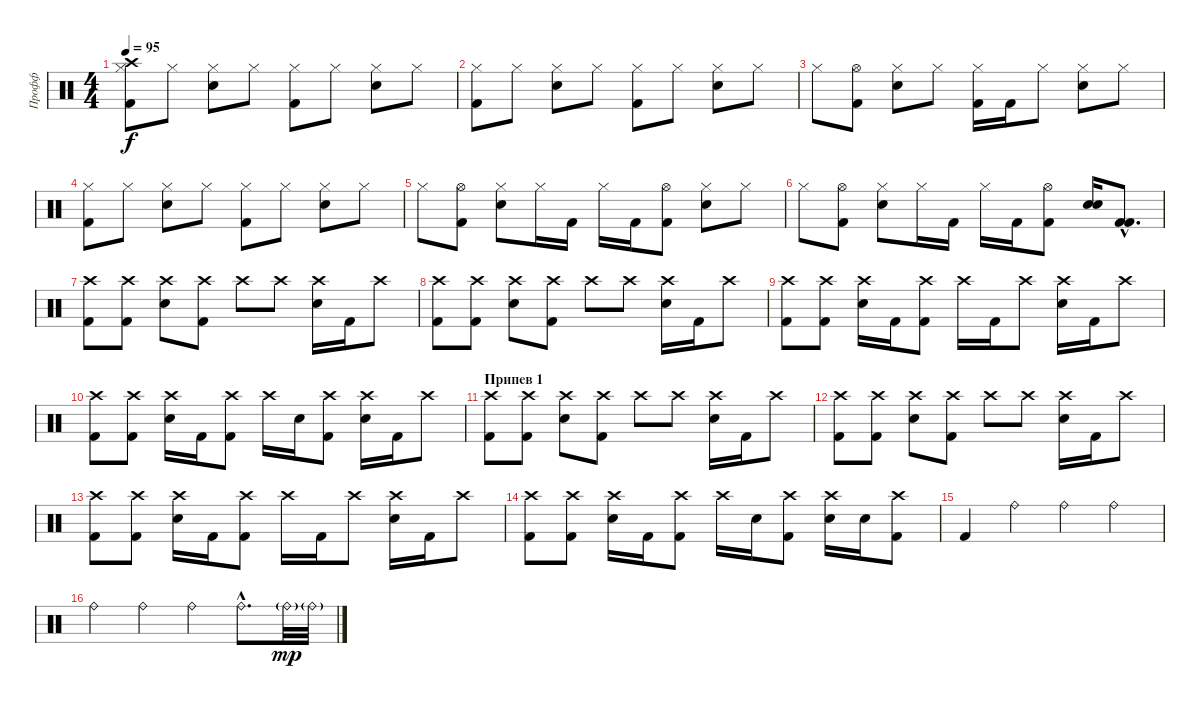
\track ("Профф" "Профф") {instrument percussion}
\staff {score}
\articulation defaults
\ts (4 4)
\tempo 95
\clef neutral
\ks c
("Hi-Hat (closed)" "Crash high (hit)" "Kick (hit) 2").8{dy f} "Hi-Hat (closed)".8 ("Hi-Hat (closed)" "Snare (hit) 2").8 "Hi-Hat (closed)".8 ("Hi-Hat (closed)" "Kick (hit) 2").8 "Hi-Hat (closed)".8 ("Hi-Hat (closed)" "Snare (hit) 2").8 "Hi-Hat (closed)".8 |
("Hi-Hat (closed)" "Kick (hit) 2").8 "Hi-Hat (closed)".8 ("Hi-Hat (closed)" "Snare (hit) 2").8 "Hi-Hat (closed)".8 ("Hi-Hat (closed)" "Kick (hit) 2").8 "Hi-Hat (closed)".8 ("Hi-Hat (closed)" "Snare (hit) 2").8 "Hi-Hat (closed)".8 |
"Hi-Hat (closed)".8 ("Hi-Hat (open)" "Kick (hit) 2").8 ("Hi-Hat (closed)" "Snare (hit) 2").8 "Hi-Hat (closed)".8 ("Hi-Hat (closed)" "Kick (hit) 2").16 "Kick (hit) 2".16 "Hi-Hat (closed)".8 ("Hi-Hat (closed)" "Snare (hit) 2").8 "Hi-Hat (closed)".8 |
("Hi-Hat (closed)" "Kick (hit) 2").8 "Hi-Hat (closed)".8 ("Hi-Hat (closed)" "Snare (hit) 2").8 "Hi-Hat (closed)".8 ("Hi-Hat (closed)" "Kick (hit) 2").8 "Hi-Hat (closed)".8 ("Hi-Hat (closed)" "Snare (hit) 2").8 "Hi-Hat (closed)".8 |
"Hi-Hat (closed)".8 ("Hi-Hat (open)" "Kick (hit) 2").8 ("Hi-Hat (closed)" "Snare (hit) 2").8 "Hi-Hat (closed)".16 "Kick (hit) 2".16 "Hi-Hat (closed)".16 "Kick (hit) 2".16 ("Hi-Hat (open)" "Kick (hit) 2").8 ("Hi-Hat (closed)" "Snare (hit) 2").8 "Hi-Hat (closed)".8 |
"Hi-Hat (closed)".8 ("Hi-Hat (open)" "Kick (hit) 2").8 ("Hi-Hat (closed)" "Snare (hit) 2").8 "Hi-Hat (closed)".16 "Kick (hit) 2".16 "Hi-Hat (closed)".16 "Kick (hit) 2".16 ("Hi-Hat (open)" "Kick (hit) 2").8 ("Snare (hit) 2" "Snare (hit) 2").16{bu 60} ("Kick (hit) 2"{hac} "Kick (hit) 2"{hac}).8{d} |
("Crash high (hit)" "Kick (hit) 2").8 ("Crash high (hit)" "Kick (hit) 2").8 ("Crash high (hit)" "Snare (hit) 2").8 ("Crash high (hit)" "Kick (hit) 2").8 "Crash high (hit)".8 "Crash high (hit)".8 ("Crash high (hit)" "Snare (hit) 2").16 "Kick (hit) 2".16 "Crash high (hit)".8 |
("Crash high (hit)" "Kick (hit) 2").8 ("Crash high (hit)" "Kick (hit) 2").8 ("Crash high (hit)" "Snare (hit) 2").8 ("Crash high (hit)" "Kick (hit) 2").8 "Crash high (hit)".8 "Crash high (hit)".8 ("Crash high (hit)" "Snare (hit) 2").16 "Kick (hit) 2".16 "Crash high (hit)".8 |
("Crash high (hit)" "Kick (hit) 2").8 ("Crash high (hit)" "Kick (hit) 2").8 ("Crash high (hit)" "Snare (hit) 2").16 "Kick (hit) 2".16 ("Crash high (hit)" "Kick (hit) 2").8 "Crash high (hit)".16 "Kick (hit) 2".16 "Crash high (hit)".8 ("Crash high (hit)" "Snare (hit) 2").16 "Kick (hit) 2".16 "Crash high (hit)".8 |
("Crash high (hit)" "Kick (hit) 2").8 ("Crash high (hit)" "Kick (hit) 2").8 ("Crash high (hit)" "Snare (hit) 2").16 "Kick (hit) 2".16 ("Crash high (hit)" "Kick (hit) 2").8 "Crash high (hit)".16 "Snare (hit) 2".16 ("Crash high (hit)" "Kick (hit) 2").8 ("Crash high (hit)" "Snare (hit) 2").16 "Kick (hit) 2".16 "Crash high (hit)".8 |
\section ("" "Припев 1")
("Crash high (hit)" "Kick (hit) 2").8 ("Crash high (hit)" "Kick (hit) 2").8 ("Crash high (hit)" "Snare (hit) 2").8 ("Crash high (hit)" "Kick (hit) 2").8 "Crash high (hit)".8 "Crash high (hit)".8 ("Crash high (hit)" "Snare (hit) 2").16 "Kick (hit) 2".16 "Crash high (hit)".8 |
("Crash high (hit)" "Kick (hit) 2").8 ("Crash high (hit)" "Kick (hit) 2").8 ("Crash high (hit)" "Snare (hit) 2").8 ("Crash high (hit)" "Kick (hit) 2").8 "Crash high (hit)".8 "Crash high (hit)".8 ("Crash high (hit)" "Snare (hit) 2").16 "Kick (hit) 2".16 "Crash high (hit)".8 |
("Crash high (hit)" "Kick (hit) 2").8 ("Crash high (hit)" "Kick (hit) 2").8 ("Crash high (hit)" "Snare (hit) 2").16 "Kick (hit) 2".16 ("Crash high (hit)" "Kick (hit) 2").8 "Crash high (hit)".16 "Kick (hit) 2".16 "Crash high (hit)".8 ("Crash high (hit)" "Snare (hit) 2").16 "Kick (hit) 2".16 "Crash high (hit)".8 |
("Crash high (hit)" "Kick (hit) 2").8 ("Crash high (hit)" "Kick (hit) 2").8 ("Crash high (hit)" "Snare (hit) 2").16 "Kick (hit) 2".16 ("Crash high (hit)" "Kick (hit) 2").8 "Crash high (hit)".16 "Snare (hit) 2".16 ("Crash high (hit)" "Kick (hit) 2").8 ("Crash high (hit)" "Snare (hit) 2").16 "Snare (hit) 2".16 ("Crash high (hit)" "Kick (hit) 2").8 |
"Kick (hit) 2".4 "Ride (bell)".4 "Ride (bell)".4 "Ride (bell)".4 |
"Ride (bell)".4 "Ride (bell)".4 "Ride (bell)".4 "Ride (bell)"{hac}.8{d} "Ride (bell)"{g}.32{dy mp} "Ride (bell)"{g}.32
